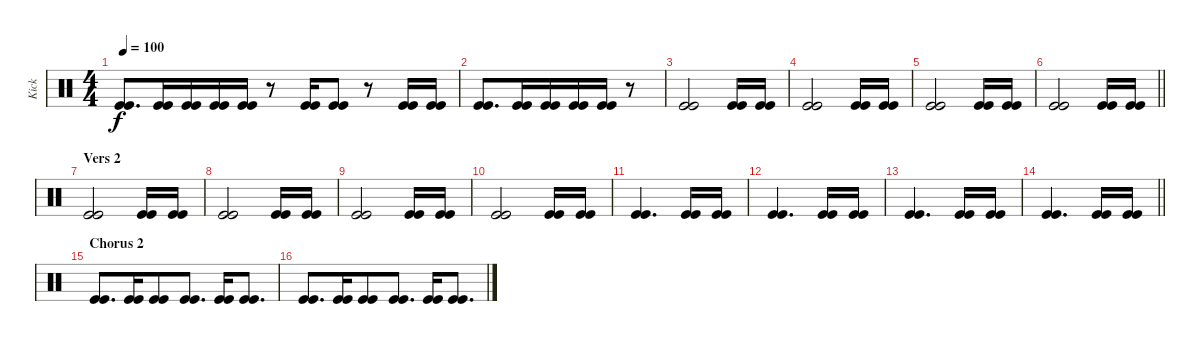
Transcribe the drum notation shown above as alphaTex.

\track ("Kick" "Kick") {instrument percussion}
\staff {score}
\articulation defaults
\ts (4 4)
\tempo 100
\clef neutral
\ks c
("Kick (hit)" "Kick (hit)").8{d dy f} ("Kick (hit)" "Kick (hit)").16{beam merge} ("Kick (hit)" "Kick (hit)").16{beam merge} ("Kick (hit)" "Kick (hit)").16 ("Kick (hit)" "Kick (hit)").16 r.8{beam merge} ("Kick (hit)" "Kick (hit)").16 ("Kick (hit)" "Kick (hit)").8 r.8{beam merge} ("Kick (hit)" "Kick (hit)").16{beam merge} ("Kick (hit)" "Kick (hit)").16 |
("Kick (hit)" "Kick (hit)").8{d} ("Kick (hit)" "Kick (hit)").16{beam merge} ("Kick (hit)" "Kick (hit)").16{beam merge} ("Kick (hit)" "Kick (hit)").16 ("Kick (hit)" "Kick (hit)").16 r.8 |
("Kick (hit)" "Kick (hit)").2{beam merge} ("Kick (hit)" "Kick (hit)").16 ("Kick (hit)" "Kick (hit)").16 |
("Kick (hit)" "Kick (hit)").2{beam merge} ("Kick (hit)" "Kick (hit)").16 ("Kick (hit)" "Kick (hit)").16 |
("Kick (hit)" "Kick (hit)").2{beam merge} ("Kick (hit)" "Kick (hit)").16 ("Kick (hit)" "Kick (hit)").16 |
\barLineRight lightlight
("Kick (hit)" "Kick (hit)").2{beam merge} ("Kick (hit)" "Kick (hit)").16 ("Kick (hit)" "Kick (hit)").16 |
\section ("" "Vers 2")
("Kick (hit)" "Kick (hit)").2{beam merge} ("Kick (hit)" "Kick (hit)").16 ("Kick (hit)" "Kick (hit)").16 |
("Kick (hit)" "Kick (hit)").2{beam merge} ("Kick (hit)" "Kick (hit)").16 ("Kick (hit)" "Kick (hit)").16 |
("Kick (hit)" "Kick (hit)").2{beam merge} ("Kick (hit)" "Kick (hit)").16 ("Kick (hit)" "Kick (hit)").16 |
("Kick (hit)" "Kick (hit)").2{beam merge} ("Kick (hit)" "Kick (hit)").16 ("Kick (hit)" "Kick (hit)").16 |
("Kick (hit)" "Kick (hit)").4{d beam merge} ("Kick (hit)" "Kick (hit)").16 ("Kick (hit)" "Kick (hit)").16 |
("Kick (hit)" "Kick (hit)").4{d beam merge} ("Kick (hit)" "Kick (hit)").16 ("Kick (hit)" "Kick (hit)").16 |
("Kick (hit)" "Kick (hit)").4{d beam merge} ("Kick (hit)" "Kick (hit)").16 ("Kick (hit)" "Kick (hit)").16 |
\barLineRight lightlight
("Kick (hit)" "Kick (hit)").4{d beam merge} ("Kick (hit)" "Kick (hit)").16 ("Kick (hit)" "Kick (hit)").16 |
\section ("" "Chorus 2")
("Kick (hit)" "Kick (hit)").8{d} ("Kick (hit)" "Kick (hit)").16{beam merge} ("Kick (hit)" "Kick (hit)").8{beam merge} ("Kick (hit)" "Kick (hit)").8{d} ("Kick (hit)" "Kick (hit)").16{beam merge} ("Kick (hit)" "Kick (hit)").8{d} |
("Kick (hit)" "Kick (hit)").8{d} ("Kick (hit)" "Kick (hit)").16{beam merge} ("Kick (hit)" "Kick (hit)").8{beam merge} ("Kick (hit)" "Kick (hit)").8{d} ("Kick (hit)" "Kick (hit)").16{beam merge} ("Kick (hit)" "Kick (hit)").8{d}
